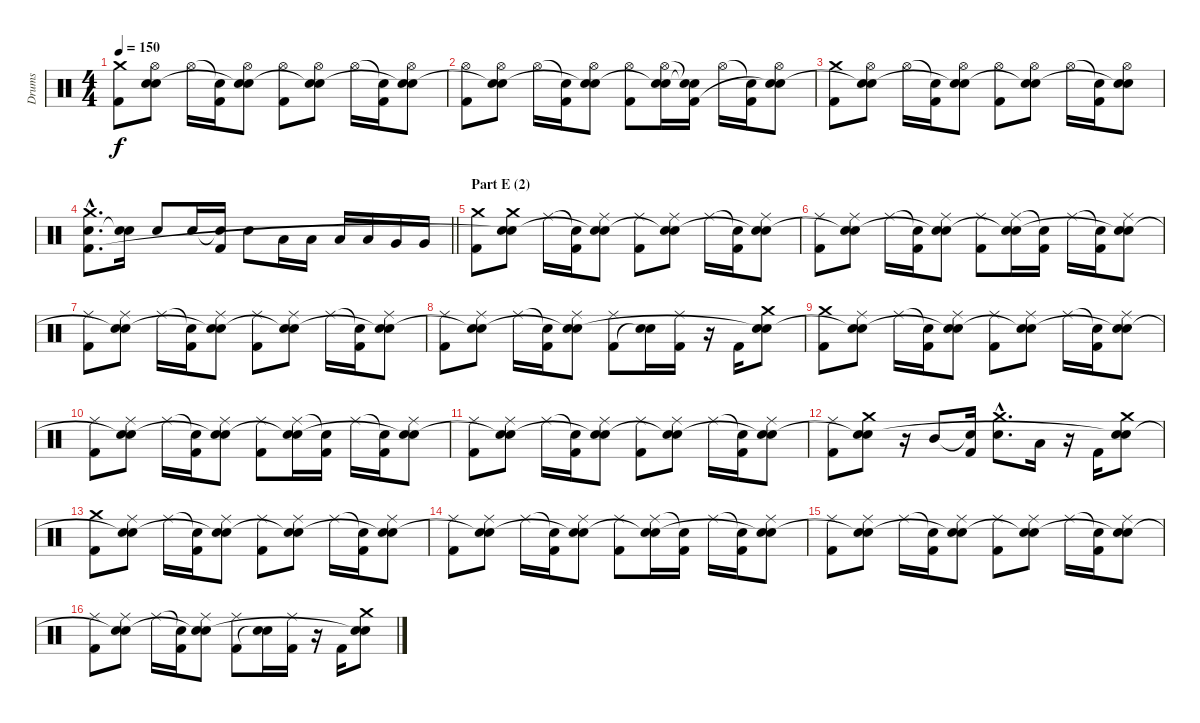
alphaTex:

\track ("Drums" "Drums") {instrument percussion}
\staff {score}
\articulation defaults
\ts (4 4)
\tempo 150
\clef neutral
\ks c
("Crash medium (hit)" "Kick (hit) 2").8{dy f} ("Hi-Hat (open)" "Electric Snare (hit)" "Snare (hit)"{t}).8 "Hi-Hat (open)".16 ("Snare (hit)"{t} "Kick (hit) 2").16 ("Hi-Hat (open)" "Electric Snare (hit)" "Snare (hit)"{t}).8 ("Hi-Hat (open)" "Kick (hit) 2").8 ("Hi-Hat (open)" "Electric Snare (hit)" "Snare (hit)"{t}).8 "Hi-Hat (open)".16 ("Snare (hit)"{t} "Kick (hit) 2").16 ("Hi-Hat (open)" "Electric Snare (hit)" "Snare (hit)"{t}).8 |
("Hi-Hat (open)" "Kick (hit) 2").8 ("Hi-Hat (open)" "Electric Snare (hit)" "Snare (hit)"{t}).8 "Hi-Hat (open)".16 ("Snare (hit)"{t} "Kick (hit) 2").16 ("Hi-Hat (open)" "Electric Snare (hit)" "Snare (hit)"{t}).8 ("Hi-Hat (open)" "Kick (hit) 2").8 ("Hi-Hat (open)" "Electric Snare (hit)" "Snare (hit)"{t}).16 ("Snare (hit)"{t} "Snare (hit)"{t} "Kick (hit) 2").16 "Hi-Hat (open)".16 ("Snare (hit)"{t} "Kick (hit) 2").16 ("Hi-Hat (open)" "Electric Snare (hit)" "Snare (hit)"{t}).8 |
("Crash medium (hit)" "Kick (hit) 2").8 ("Hi-Hat (open)" "Electric Snare (hit)" "Snare (hit)"{t}).8 "Hi-Hat (open)".16 ("Snare (hit)"{t} "Kick (hit) 2").16 ("Hi-Hat (open)" "Electric Snare (hit)" "Snare (hit)"{t}).8 ("Hi-Hat (open)" "Kick (hit) 2").8 ("Hi-Hat (open)" "Electric Snare (hit)" "Snare (hit)"{t}).8 "Hi-Hat (open)".16 ("Snare (hit)"{t} "Kick (hit) 2").16 ("Hi-Hat (open)" "Electric Snare (hit)" "Snare (hit)"{t}).8 |
\barLineRight lightlight
("Crash medium (hit)"{hac} "Electric Snare (hit)"{hac} "Kick (hit) 2"{hac}).8{d} ("Electric Snare (hit)" "Snare (hit)"{t}).16 "Electric Snare (hit)".8 "Electric Snare (hit)".16 ("Snare (hit)"{t} "Kick (hit) 2").16 "Electric Snare (hit)".8 "Low Tom (hit)".16 "Low Tom (hit)".16 "Low Tom (hit)".16 "Low Tom (hit)".16 "Very Low Tom (hit)".16 "Very Low Tom (hit)".16 |
\section ("" "Part E (2)")
("Crash medium (hit)" "Kick (hit) 2").8 ("Crash medium (hit)" "Electric Snare (hit)" "Snare (hit)"{t}).8 "Ride (middle)".16 ("Snare (hit)"{t} "Kick (hit) 2").16 ("Ride (middle)" "Electric Snare (hit)" "Snare (hit)"{t}).8 ("Ride (middle)" "Kick (hit) 2").8 ("Ride (middle)" "Electric Snare (hit)" "Snare (hit)"{t}).8 "Ride (middle)".16 ("Snare (hit)"{t} "Kick (hit) 2").16 ("Ride (middle)" "Electric Snare (hit)" "Snare (hit)"{t}).8 |
("Ride (middle)" "Kick (hit) 2").8 ("Ride (middle)" "Electric Snare (hit)" "Snare (hit)"{t}).8 "Ride (middle)".16 ("Snare (hit)"{t} "Kick (hit) 2").16 ("Ride (middle)" "Electric Snare (hit)" "Snare (hit)"{t}).8 ("Ride (middle)" "Kick (hit) 2").8 ("Ride (middle)" "Electric Snare (hit)" "Snare (hit)"{t}).16 ("Snare (hit)"{t} "Kick (hit) 2").16 "Ride (middle)".16 ("Snare (hit)"{t} "Kick (hit) 2").16 ("Ride (middle)" "Electric Snare (hit)" "Snare (hit)"{t}).8 |
("Ride (middle)" "Kick (hit) 2").8 ("Ride (middle)" "Electric Snare (hit)" "Snare (hit)"{t}).8 "Ride (middle)".16 ("Snare (hit)"{t} "Kick (hit) 2").16 ("Ride (middle)" "Electric Snare (hit)" "Snare (hit)"{t}).8 ("Ride (middle)" "Kick (hit) 2").8 ("Ride (middle)" "Electric Snare (hit)" "Snare (hit)"{t}).8 "Ride (middle)".16 ("Snare (hit)"{t} "Kick (hit) 2").16 ("Ride (middle)" "Electric Snare (hit)" "Snare (hit)"{t}).8 |
("Ride (middle)" "Kick (hit) 2").8 ("Ride (middle)" "Electric Snare (hit)" "Snare (hit)"{t}).8 "Ride (middle)".16 ("Snare (hit)"{t} "Kick (hit) 2").16 ("Ride (middle)" "Electric Snare (hit)" "Snare (hit)"{t}).8 ("Ride (middle)" "Kick (hit) 2").8 ("Electric Snare (hit)" "Snare (hit)"{t}).16 ("Ride (middle)" "Kick (hit) 2").16 r.16 "Kick (hit) 2".16 ("Crash medium (hit)" "Electric Snare (hit)" "Snare (hit)"{t}).8 |
("Crash medium (hit)" "Kick (hit) 2").8 ("Ride (middle)" "Electric Snare (hit)" "Snare (hit)"{t}).8 "Ride (middle)".16 ("Snare (hit)"{t} "Kick (hit) 2").16 ("Ride (middle)" "Electric Snare (hit)" "Snare (hit)"{t}).8 ("Ride (middle)" "Kick (hit) 2").8 ("Ride (middle)" "Electric Snare (hit)" "Snare (hit)"{t}).8 "Ride (middle)".16 ("Snare (hit)"{t} "Kick (hit) 2").16 ("Ride (middle)" "Electric Snare (hit)" "Snare (hit)"{t}).8 |
("Ride (middle)" "Kick (hit) 2").8 ("Ride (middle)" "Electric Snare (hit)" "Snare (hit)"{t}).8 "Ride (middle)".16 ("Snare (hit)"{t} "Kick (hit) 2").16 ("Ride (middle)" "Electric Snare (hit)" "Snare (hit)"{t}).8 ("Ride (middle)" "Kick (hit) 2").8 ("Ride (middle)" "Electric Snare (hit)" "Snare (hit)"{t}).16 ("Snare (hit)"{t} "Kick (hit) 2").16 "Ride (middle)".16 ("Snare (hit)"{t} "Kick (hit) 2").16 ("Ride (middle)" "Electric Snare (hit)" "Snare (hit)"{t}).8 |
("Ride (middle)" "Kick (hit) 2").8 ("Ride (middle)" "Electric Snare (hit)" "Snare (hit)"{t}).8 "Ride (middle)".16 ("Snare (hit)"{t} "Kick (hit) 2").16 ("Ride (middle)" "Electric Snare (hit)" "Snare (hit)"{t}).8 ("Ride (middle)" "Kick (hit) 2").8 ("Ride (middle)" "Electric Snare (hit)" "Snare (hit)"{t}).8 "Ride (middle)".16 ("Snare (hit)"{t} "Kick (hit) 2").16 ("Ride (middle)" "Electric Snare (hit)" "Snare (hit)"{t}).8 |
("Ride (middle)" "Kick (hit) 2").8 ("Crash medium (hit)" "Electric Snare (hit)" "Snare (hit)"{t}).8 r.16 "Mid Tom (hit)".8 ("Snare (hit)"{t} "Kick (hit) 2").16 ("Crash medium (hit)"{hac} "Electric Snare (hit)"{hac}).8{d} "Low Tom (hit)".16 r.16 "Kick (hit) 2".16 ("Crash medium (hit)" "Electric Snare (hit)" "Snare (hit)"{t}).8 |
("Crash medium (hit)" "Kick (hit) 2").8 ("Ride (middle)" "Electric Snare (hit)" "Snare (hit)"{t}).8 "Ride (middle)".16 ("Snare (hit)"{t} "Kick (hit) 2").16 ("Ride (middle)" "Electric Snare (hit)" "Snare (hit)"{t}).8 ("Ride (middle)" "Kick (hit) 2").8 ("Ride (middle)" "Electric Snare (hit)" "Snare (hit)"{t}).8 "Ride (middle)".16 ("Snare (hit)"{t} "Kick (hit) 2").16 ("Ride (middle)" "Electric Snare (hit)" "Snare (hit)"{t}).8 |
("Ride (middle)" "Kick (hit) 2").8 ("Ride (middle)" "Electric Snare (hit)" "Snare (hit)"{t}).8 "Ride (middle)".16 ("Snare (hit)"{t} "Kick (hit) 2").16 ("Ride (middle)" "Electric Snare (hit)" "Snare (hit)"{t}).8 ("Ride (middle)" "Kick (hit) 2").8 ("Ride (middle)" "Electric Snare (hit)" "Snare (hit)"{t}).16 ("Snare (hit)"{t} "Kick (hit) 2").16 "Ride (middle)".16 ("Snare (hit)"{t} "Kick (hit) 2").16 ("Ride (middle)" "Electric Snare (hit)" "Snare (hit)"{t}).8 |
("Ride (middle)" "Kick (hit) 2").8 ("Ride (middle)" "Electric Snare (hit)" "Snare (hit)"{t}).8 "Ride (middle)".16 ("Snare (hit)"{t} "Kick (hit) 2").16 ("Ride (middle)" "Electric Snare (hit)" "Snare (hit)"{t}).8 ("Ride (middle)" "Kick (hit) 2").8 ("Ride (middle)" "Electric Snare (hit)" "Snare (hit)"{t}).8 "Ride (middle)".16 ("Snare (hit)"{t} "Kick (hit) 2").16 ("Ride (middle)" "Electric Snare (hit)" "Snare (hit)"{t}).8 |
("Ride (middle)" "Kick (hit) 2").8 ("Ride (middle)" "Electric Snare (hit)" "Snare (hit)"{t}).8 "Ride (middle)".16 ("Snare (hit)"{t} "Kick (hit) 2").16 ("Ride (middle)" "Electric Snare (hit)" "Snare (hit)"{t}).8 ("Ride (middle)" "Kick (hit) 2").8 ("Electric Snare (hit)" "Snare (hit)"{t}).16 ("Ride (middle)" "Kick (hit) 2").16 r.16 "Kick (hit) 2".16 ("Crash medium (hit)" "Electric Snare (hit)" "Snare (hit)"{t}).8
